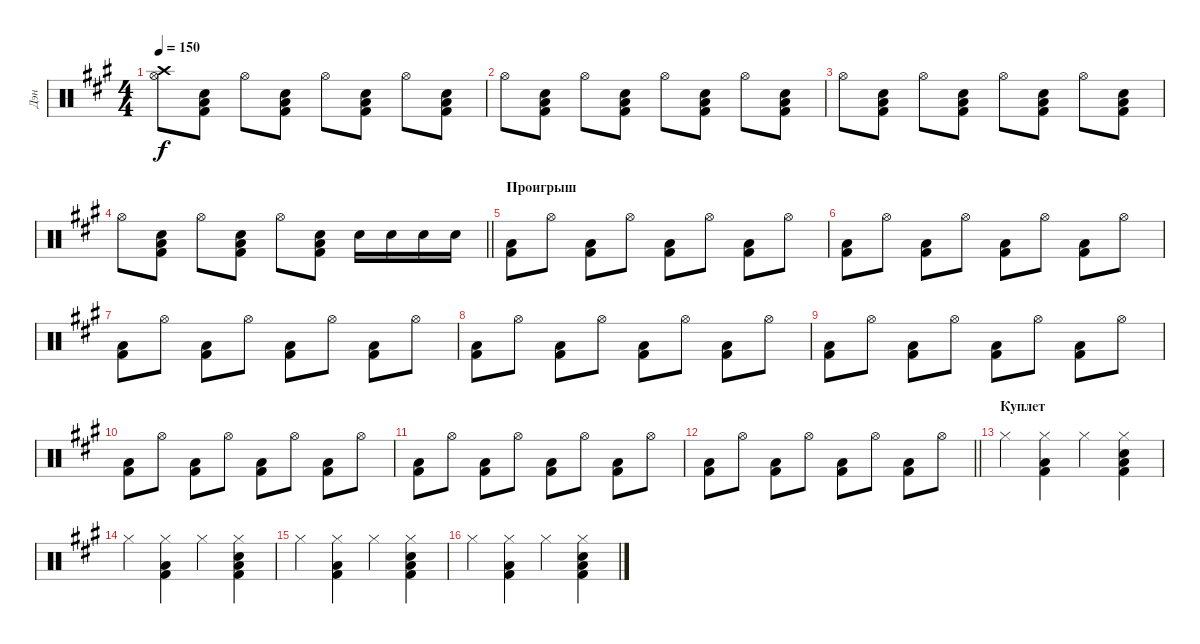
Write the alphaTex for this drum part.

\track ("Дэн" "Дэн") {instrument percussion}
\staff {score}
\articulation defaults
\ts (4 4)
\tempo 150
\clef neutral
\ks f#minor
("Crash high (hit)" "Hi-Hat (open)").8{dy f} ("Electric Snare (hit)" "Low Tom (hit)" "Kick (hit) 2").8 "Hi-Hat (open)".8 ("Electric Snare (hit)" "Low Tom (hit)" "Kick (hit) 2").8 "Hi-Hat (open)".8 ("Electric Snare (hit)" "Low Tom (hit)" "Kick (hit) 2").8 "Hi-Hat (open)".8 ("Electric Snare (hit)" "Low Tom (hit)" "Kick (hit) 2").8 |
"Hi-Hat (open)".8 ("Electric Snare (hit)" "Low Tom (hit)" "Kick (hit) 2").8 "Hi-Hat (open)".8 ("Electric Snare (hit)" "Low Tom (hit)" "Kick (hit) 2").8 "Hi-Hat (open)".8 ("Electric Snare (hit)" "Low Tom (hit)" "Kick (hit) 2").8 "Hi-Hat (open)".8 ("Electric Snare (hit)" "Low Tom (hit)" "Kick (hit) 2").8 |
"Hi-Hat (open)".8 ("Electric Snare (hit)" "Low Tom (hit)" "Kick (hit) 2").8 "Hi-Hat (open)".8 ("Electric Snare (hit)" "Low Tom (hit)" "Kick (hit) 2").8 "Hi-Hat (open)".8 ("Electric Snare (hit)" "Low Tom (hit)" "Kick (hit) 2").8 "Hi-Hat (open)".8 ("Electric Snare (hit)" "Low Tom (hit)" "Kick (hit) 2").8 |
\barLineRight lightlight "Hi-Hat (open)".8
("Electric Snare (hit)" "Low Tom (hit)" "Kick (hit) 2").8 "Hi-Hat (open)".8 ("Electric Snare (hit)" "Low Tom (hit)" "Kick (hit) 2").8 "Hi-Hat (open)".8 ("Electric Snare (hit)" "Low Tom (hit)" "Kick (hit) 2").8 "Electric Snare (hit)".16 "Electric Snare (hit)".16 "Electric Snare (hit)".16 "Electric Snare (hit)".16 |
\section ("" "Проигрыш")
("Low Tom (hit)" "Kick (hit) 2").8 "Hi-Hat (open)".8 ("Low Tom (hit)" "Kick (hit) 2").8 "Hi-Hat (open)".8 ("Low Tom (hit)" "Kick (hit) 2").8 "Hi-Hat (open)".8 ("Low Tom (hit)" "Kick (hit) 2").8 "Hi-Hat (open)".8 |
("Low Tom (hit)" "Kick (hit) 2").8 "Hi-Hat (open)".8 ("Low Tom (hit)" "Kick (hit) 2").8 "Hi-Hat (open)".8 ("Low Tom (hit)" "Kick (hit) 2").8 "Hi-Hat (open)".8 ("Low Tom (hit)" "Kick (hit) 2").8 "Hi-Hat (open)".8 |
("Low Tom (hit)" "Kick (hit) 2").8 "Hi-Hat (open)".8 ("Low Tom (hit)" "Kick (hit) 2").8 "Hi-Hat (open)".8 ("Low Tom (hit)" "Kick (hit) 2").8 "Hi-Hat (open)".8 ("Low Tom (hit)" "Kick (hit) 2").8 "Hi-Hat (open)".8 |
("Low Tom (hit)" "Kick (hit) 2").8 "Hi-Hat (open)".8 ("Low Tom (hit)" "Kick (hit) 2").8 "Hi-Hat (open)".8 ("Low Tom (hit)" "Kick (hit) 2").8 "Hi-Hat (open)".8 ("Low Tom (hit)" "Kick (hit) 2").8 "Hi-Hat (open)".8 |
("Low Tom (hit)" "Kick (hit) 2").8 "Hi-Hat (open)".8 ("Low Tom (hit)" "Kick (hit) 2").8 "Hi-Hat (open)".8 ("Low Tom (hit)" "Kick (hit) 2").8 "Hi-Hat (open)".8 ("Low Tom (hit)" "Kick (hit) 2").8 "Hi-Hat (open)".8 |
("Low Tom (hit)" "Kick (hit) 2").8 "Hi-Hat (open)".8 ("Low Tom (hit)" "Kick (hit) 2").8 "Hi-Hat (open)".8 ("Low Tom (hit)" "Kick (hit) 2").8 "Hi-Hat (open)".8 ("Low Tom (hit)" "Kick (hit) 2").8 "Hi-Hat (open)".8 |
("Low Tom (hit)" "Kick (hit) 2").8 "Hi-Hat (open)".8 ("Low Tom (hit)" "Kick (hit) 2").8 "Hi-Hat (open)".8 ("Low Tom (hit)" "Kick (hit) 2").8 "Hi-Hat (open)".8 ("Low Tom (hit)" "Kick (hit) 2").8 "Hi-Hat (open)".8 |
\barLineRight lightlight
("Low Tom (hit)" "Kick (hit) 2").8 "Hi-Hat (open)".8 ("Low Tom (hit)" "Kick (hit) 2").8 "Hi-Hat (open)".8 ("Low Tom (hit)" "Kick (hit) 2").8 "Hi-Hat (open)".8 ("Low Tom (hit)" "Kick (hit) 2").8 "Hi-Hat (open)".8 |
\section ("" "Куплет")
"Hi-Hat (closed)".4 ("Hi-Hat (closed)" "Low Tom (hit)" "Kick (hit) 2").4 "Hi-Hat (closed)".4 ("Hi-Hat (closed)" "Electric Snare (hit)" "Low Tom (hit)" "Kick (hit) 2").4 |
"Hi-Hat (closed)".4 ("Hi-Hat (closed)" "Low Tom (hit)" "Kick (hit) 2").4 "Hi-Hat (closed)".4 ("Hi-Hat (closed)" "Electric Snare (hit)" "Low Tom (hit)" "Kick (hit) 2").4 |
"Hi-Hat (closed)".4 ("Hi-Hat (closed)" "Low Tom (hit)" "Kick (hit) 2").4 "Hi-Hat (closed)".4 ("Hi-Hat (closed)" "Electric Snare (hit)" "Low Tom (hit)" "Kick (hit) 2").4 |
"Hi-Hat (closed)".4 ("Hi-Hat (closed)" "Low Tom (hit)" "Kick (hit) 2").4 "Hi-Hat (closed)".4 ("Hi-Hat (closed)" "Electric Snare (hit)" "Low Tom (hit)" "Kick (hit) 2").4
